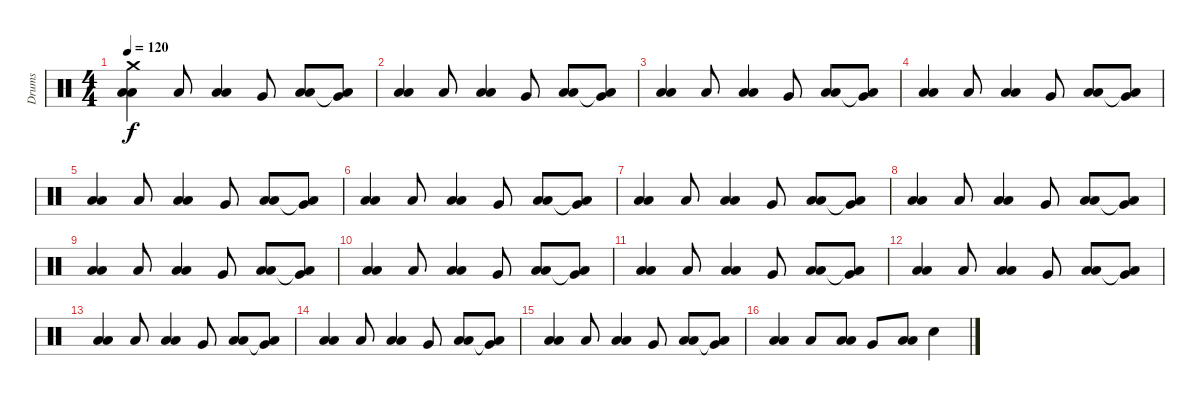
\track ("Drums" "Drums") {instrument percussion}
\staff {score}
\articulation defaults
\ts (4 4)
\tempo 120
\clef neutral
\ks c
("Crash medium (hit)" "Low Tom (hit)" "Low Tom (hit)").4{bd 60 dy f} "Low Tom (hit)".8{bd 60} ("Low Tom (hit)" "Low Tom (hit)").4{bd 60} "Very Low Tom (hit)".8 ("Low Tom (hit)" "Low Tom (hit)").8{bd 60} ("Low Tom (hit)"{t} "Very Low Tom (hit)").8 |
("Low Tom (hit)" "Low Tom (hit)").4{bd 60} "Low Tom (hit)".8{bd 60} ("Low Tom (hit)" "Low Tom (hit)").4{bd 60} "Very Low Tom (hit)".8 ("Low Tom (hit)" "Low Tom (hit)").8{bd 60} ("Low Tom (hit)"{t} "Very Low Tom (hit)").8 |
("Low Tom (hit)" "Low Tom (hit)").4{bd 60} "Low Tom (hit)".8{bd 60} ("Low Tom (hit)" "Low Tom (hit)").4{bd 60} "Very Low Tom (hit)".8 ("Low Tom (hit)" "Low Tom (hit)").8{bd 60} ("Low Tom (hit)"{t} "Very Low Tom (hit)").8 |
("Low Tom (hit)" "Low Tom (hit)").4{bd 60} "Low Tom (hit)".8{bd 60} ("Low Tom (hit)" "Low Tom (hit)").4{bd 60} "Very Low Tom (hit)".8 ("Low Tom (hit)" "Low Tom (hit)").8{bd 60} ("Low Tom (hit)"{t} "Very Low Tom (hit)").8 |
("Low Tom (hit)" "Low Tom (hit)").4{bd 60} "Low Tom (hit)".8{bd 60} ("Low Tom (hit)" "Low Tom (hit)").4{bd 60} "Very Low Tom (hit)".8 ("Low Tom (hit)" "Low Tom (hit)").8{bd 60} ("Low Tom (hit)"{t} "Very Low Tom (hit)").8 |
("Low Tom (hit)" "Low Tom (hit)").4{bd 60} "Low Tom (hit)".8{bd 60} ("Low Tom (hit)" "Low Tom (hit)").4{bd 60} "Very Low Tom (hit)".8 ("Low Tom (hit)" "Low Tom (hit)").8{bd 60} ("Low Tom (hit)"{t} "Very Low Tom (hit)").8 |
("Low Tom (hit)" "Low Tom (hit)").4{bd 60} "Low Tom (hit)".8{bd 60} ("Low Tom (hit)" "Low Tom (hit)").4{bd 60} "Very Low Tom (hit)".8 ("Low Tom (hit)" "Low Tom (hit)").8{bd 60} ("Low Tom (hit)"{t} "Very Low Tom (hit)").8 |
("Low Tom (hit)" "Low Tom (hit)").4{bd 60} "Low Tom (hit)".8{bd 60} ("Low Tom (hit)" "Low Tom (hit)").4{bd 60} "Very Low Tom (hit)".8 ("Low Tom (hit)" "Low Tom (hit)").8{bd 60} ("Low Tom (hit)"{t} "Very Low Tom (hit)").8 |
("Low Tom (hit)" "Low Tom (hit)").4{bd 60} "Low Tom (hit)".8{bd 60} ("Low Tom (hit)" "Low Tom (hit)").4{bd 60} "Very Low Tom (hit)".8 ("Low Tom (hit)" "Low Tom (hit)").8{bd 60} ("Low Tom (hit)"{t} "Very Low Tom (hit)").8 |
("Low Tom (hit)" "Low Tom (hit)").4{bd 60} "Low Tom (hit)".8{bd 60} ("Low Tom (hit)" "Low Tom (hit)").4{bd 60} "Very Low Tom (hit)".8 ("Low Tom (hit)" "Low Tom (hit)").8{bd 60} ("Low Tom (hit)"{t} "Very Low Tom (hit)").8 |
("Low Tom (hit)" "Low Tom (hit)").4{bd 60} "Low Tom (hit)".8{bd 60} ("Low Tom (hit)" "Low Tom (hit)").4{bd 60} "Very Low Tom (hit)".8 ("Low Tom (hit)" "Low Tom (hit)").8{bd 60} ("Low Tom (hit)"{t} "Very Low Tom (hit)").8 |
("Low Tom (hit)" "Low Tom (hit)").4{bd 60} "Low Tom (hit)".8{bd 60} ("Low Tom (hit)" "Low Tom (hit)").4{bd 60} "Very Low Tom (hit)".8 ("Low Tom (hit)" "Low Tom (hit)").8{bd 60} ("Low Tom (hit)"{t} "Very Low Tom (hit)").8 |
("Low Tom (hit)" "Low Tom (hit)").4{bd 60} "Low Tom (hit)".8{bd 60} ("Low Tom (hit)" "Low Tom (hit)").4{bd 60} "Very Low Tom (hit)".8 ("Low Tom (hit)" "Low Tom (hit)").8{bd 60} ("Low Tom (hit)"{t} "Very Low Tom (hit)").8 |
("Low Tom (hit)" "Low Tom (hit)").4{bd 60} "Low Tom (hit)".8{bd 60} ("Low Tom (hit)" "Low Tom (hit)").4{bd 60} "Very Low Tom (hit)".8 ("Low Tom (hit)" "Low Tom (hit)").8{bd 60} ("Low Tom (hit)"{t} "Very Low Tom (hit)").8 |
("Low Tom (hit)" "Low Tom (hit)").4{bd 60} "Low Tom (hit)".8{bd 60} ("Low Tom (hit)" "Low Tom (hit)").4{bd 60} "Very Low Tom (hit)".8 ("Low Tom (hit)" "Low Tom (hit)").8{bd 60} ("Low Tom (hit)"{t} "Very Low Tom (hit)").8 |
("Low Tom (hit)" "Low Tom (hit)").4{bd 60} "Low Tom (hit)".8{bd 60} ("Low Tom (hit)" "Low Tom (hit)").8{bd 60} "Very Low Tom (hit)".8 ("Low Tom (hit)" "Low Tom (hit)").8{bd 60} "Electric Snare (hit)".4
